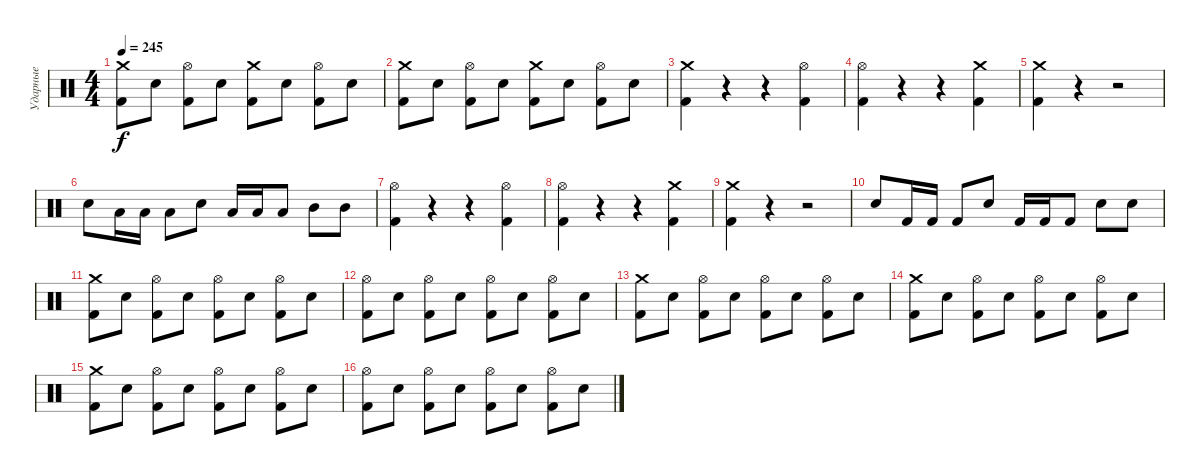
\track ("Ударные" "Ударные") {instrument percussion}
\staff {score}
\articulation defaults
\ts (4 4)
\tempo 245
\clef neutral
\ks c
("Crash medium (hit)" "Kick (hit) 2").8{dy f} "Snare (hit) 2".8 ("Hi-Hat (open)" "Kick (hit) 2").8 "Snare (hit) 2".8 ("Crash medium (hit)" "Kick (hit) 2").8 "Snare (hit) 2".8 ("Hi-Hat (open)" "Kick (hit) 2").8 "Snare (hit) 2".8 |
("Crash medium (hit)" "Kick (hit) 2").8 "Snare (hit) 2".8 ("Hi-Hat (open)" "Kick (hit) 2").8 "Snare (hit) 2".8 ("Crash medium (hit)" "Kick (hit) 2").8 "Snare (hit) 2".8 ("Hi-Hat (open)" "Kick (hit) 2").8 "Snare (hit) 2".8 |
("Crash medium (hit)" "Kick (hit) 2").4 r.4 r.4 ("Hi-Hat (open)" "Kick (hit) 2").4 |
("Hi-Hat (open)" "Kick (hit) 2").4 r.4 r.4 ("Crash medium (hit)" "Kick (hit) 2").4 |
("Crash medium (hit)" "Kick (hit) 2").4 r.4 r.2 |
"Snare (hit) 2".8 "Low Tom (hit)".16 "Low Tom (hit)".16 "Low Tom (hit)".8 "Snare (hit) 2".8 "Low Tom (hit)".16 "Low Tom (hit)".16 "Low Tom (hit)".8 "Mid Tom (hit)".8 "Mid Tom (hit)".8 |
("Hi-Hat (open)" "Kick (hit) 2").4 r.4 r.4 ("Hi-Hat (open)" "Kick (hit) 2").4 |
("Hi-Hat (open)" "Kick (hit) 2").4 r.4 r.4 ("Crash medium (hit)" "Kick (hit) 2").4 |
("Crash medium (hit)" "Kick (hit) 2").4 r.4 r.2 |
"Snare (hit) 2".8 "Kick (hit) 2".16 "Kick (hit) 2".16 "Kick (hit) 2".8 "Snare (hit) 2".8 "Kick (hit) 2".16 "Kick (hit) 2".16 "Kick (hit) 2".8 "Snare (hit) 2".8 "Snare (hit) 2".8 |
("Crash medium (hit)" "Kick (hit) 2").8 "Snare (hit) 2".8 ("Hi-Hat (open)" "Kick (hit) 2").8 "Snare (hit) 2".8 ("Hi-Hat (open)" "Kick (hit) 2").8 "Snare (hit) 2".8 ("Hi-Hat (open)" "Kick (hit) 2").8 "Snare (hit) 2".8 |
("Hi-Hat (open)" "Kick (hit) 2").8 "Snare (hit) 2".8 ("Hi-Hat (open)" "Kick (hit) 2").8 "Snare (hit) 2".8 ("Hi-Hat (open)" "Kick (hit) 2").8 "Snare (hit) 2".8 ("Hi-Hat (open)" "Kick (hit) 2").8 "Snare (hit) 2".8 |
("Crash medium (hit)" "Kick (hit) 2").8 "Snare (hit) 2".8 ("Hi-Hat (open)" "Kick (hit) 2").8 "Snare (hit) 2".8 ("Hi-Hat (open)" "Kick (hit) 2").8 "Snare (hit) 2".8 ("Hi-Hat (open)" "Kick (hit) 2").8 "Snare (hit) 2".8 |
("Crash medium (hit)" "Kick (hit) 2").8 "Snare (hit) 2".8 ("Hi-Hat (open)" "Kick (hit) 2").8 "Snare (hit) 2".8 ("Hi-Hat (open)" "Kick (hit) 2").8 "Snare (hit) 2".8 ("Hi-Hat (open)" "Kick (hit) 2").8 "Snare (hit) 2".8 |
("Crash medium (hit)" "Kick (hit) 2").8 "Snare (hit) 2".8 ("Hi-Hat (open)" "Kick (hit) 2").8 "Snare (hit) 2".8 ("Hi-Hat (open)" "Kick (hit) 2").8 "Snare (hit) 2".8 ("Hi-Hat (open)" "Kick (hit) 2").8 "Snare (hit) 2".8 |
("Hi-Hat (open)" "Kick (hit) 2").8 "Snare (hit) 2".8 ("Hi-Hat (open)" "Kick (hit) 2").8 "Snare (hit) 2".8 ("Hi-Hat (open)" "Kick (hit) 2").8 "Snare (hit) 2".8 ("Hi-Hat (open)" "Kick (hit) 2").8 "Snare (hit) 2".8
